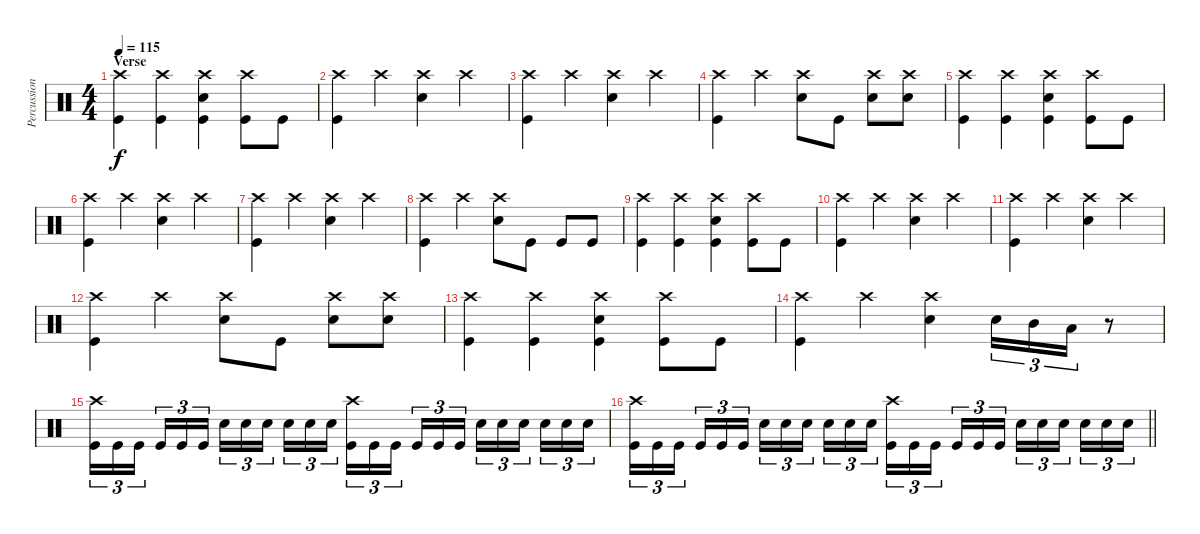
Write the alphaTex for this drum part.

\track ("Percussions" "Percussion") {instrument percussion}
\staff {score}
\articulation defaults
\ts (4 4)
\section ("" "Verse")
\tempo 115
\clef neutral
\ks c
("Crash high (hit)" "Kick (hit)").4{dy f} ("Crash high (hit)" "Kick (hit)").4 ("Crash high (hit)" "Electric Snare (hit)" "Kick (hit)").4 ("Crash high (hit)" "Kick (hit)").8 "Kick (hit)".8 |
("Crash high (hit)" "Kick (hit)").4 "Crash high (hit)".4 ("Crash high (hit)" "Electric Snare (hit)").4 "Crash high (hit)".4 |
("Crash high (hit)" "Kick (hit)").4 "Crash high (hit)".4 ("Crash high (hit)" "Electric Snare (hit)").4 "Crash high (hit)".4 |
("Crash high (hit)" "Kick (hit)").4 "Crash high (hit)".4 ("Crash high (hit)" "Electric Snare (hit)").8 "Kick (hit)".8 ("Crash high (hit)" "Electric Snare (hit)").8 ("Crash high (hit)" "Electric Snare (hit)").8 |
("Crash high (hit)" "Kick (hit)").4 ("Crash high (hit)" "Kick (hit)").4 ("Crash high (hit)" "Electric Snare (hit)" "Kick (hit)").4 ("Crash high (hit)" "Kick (hit)").8 "Kick (hit)".8 |
("Crash high (hit)" "Kick (hit)").4 "Crash high (hit)".4 ("Crash high (hit)" "Electric Snare (hit)").4 "Crash high (hit)".4 |
("Crash high (hit)" "Kick (hit)").4 "Crash high (hit)".4 ("Crash high (hit)" "Electric Snare (hit)").4 "Crash high (hit)".4 |
("Crash high (hit)" "Kick (hit)").4 "Crash high (hit)".4 ("Crash high (hit)" "Electric Snare (hit)").8 "Kick (hit)".8 "Kick (hit)".8 "Kick (hit)".8 |
("Crash high (hit)" "Kick (hit)").4 ("Crash high (hit)" "Kick (hit)").4 ("Crash high (hit)" "Electric Snare (hit)" "Kick (hit)").4 ("Crash high (hit)" "Kick (hit)").8 "Kick (hit)".8 |
("Crash high (hit)" "Kick (hit)").4 "Crash high (hit)".4 ("Crash high (hit)" "Electric Snare (hit)").4 "Crash high (hit)".4 |
("Crash high (hit)" "Kick (hit)").4 "Crash high (hit)".4 ("Crash high (hit)" "Electric Snare (hit)").4 "Crash high (hit)".4 |
("Crash high (hit)" "Kick (hit)").4 "Crash high (hit)".4 ("Crash high (hit)" "Electric Snare (hit)").8 "Kick (hit)".8 ("Crash high (hit)" "Electric Snare (hit)").8 ("Crash high (hit)" "Electric Snare (hit)").8 |
("Crash high (hit)" "Kick (hit)").4 ("Crash high (hit)" "Kick (hit)").4 ("Crash high (hit)" "Electric Snare (hit)" "Kick (hit)").4 ("Crash high (hit)" "Kick (hit)").8 "Kick (hit)".8 |
("Crash high (hit)" "Kick (hit)").4 "Crash high (hit)".4 ("Crash high (hit)" "Electric Snare (hit)").4 "Electric Snare (hit)".16{tu (3 2)} "Mid Tom (hit)".16{tu (3 2)} "Low Tom (hit)".16{tu (3 2)} r.8 |
("Crash high (hit)" "Kick (hit)").16{tu (3 2)} "Kick (hit)".16{tu (3 2)} "Kick (hit)".16{tu (3 2) beam splitsecondary} "Kick (hit)".16{tu (3 2)} "Kick (hit)".16{tu (3 2)} "Kick (hit)".16{tu (3 2)} "Electric Snare (hit)".16{tu (3 2)} "Electric Snare (hit)".16{tu (3 2)} "Electric Snare (hit)".16{tu (3 2) beam splitsecondary} "Electric Snare (hit)".16{tu (3 2)} "Electric Snare (hit)".16{tu (3 2)} "Electric Snare (hit)".16{tu (3 2)} ("Crash high (hit)" "Kick (hit)").16{tu (3 2)} "Kick (hit)".16{tu (3 2)} "Kick (hit)".16{tu (3 2) beam splitsecondary} "Kick (hit)".16{tu (3 2)} "Kick (hit)".16{tu (3 2)} "Kick (hit)".16{tu (3 2)} "Electric Snare (hit)".16{tu (3 2)} "Electric Snare (hit)".16{tu (3 2)} "Electric Snare (hit)".16{tu (3 2) beam splitsecondary} "Electric Snare (hit)".16{tu (3 2)} "Electric Snare (hit)".16{tu (3 2)} "Electric Snare (hit)".16{tu (3 2)} |
\barLineRight lightlight
("Crash high (hit)" "Kick (hit)").16{tu (3 2)} "Kick (hit)".16{tu (3 2)} "Kick (hit)".16{tu (3 2) beam splitsecondary} "Kick (hit)".16{tu (3 2)} "Kick (hit)".16{tu (3 2)} "Kick (hit)".16{tu (3 2)} "Electric Snare (hit)".16{tu (3 2)} "Electric Snare (hit)".16{tu (3 2)} "Electric Snare (hit)".16{tu (3 2) beam splitsecondary} "Electric Snare (hit)".16{tu (3 2)} "Electric Snare (hit)".16{tu (3 2)} "Electric Snare (hit)".16{tu (3 2)} ("Crash high (hit)" "Kick (hit)").16{tu (3 2)} "Kick (hit)".16{tu (3 2)} "Kick (hit)".16{tu (3 2) beam splitsecondary} "Kick (hit)".16{tu (3 2)} "Kick (hit)".16{tu (3 2)} "Kick (hit)".16{tu (3 2)} "Electric Snare (hit)".16{tu (3 2)} "Electric Snare (hit)".16{tu (3 2)} "Electric Snare (hit)".16{tu (3 2) beam splitsecondary} "Electric Snare (hit)".16{tu (3 2)} "Electric Snare (hit)".16{tu (3 2)} "Electric Snare (hit)".16{tu (3 2)}
